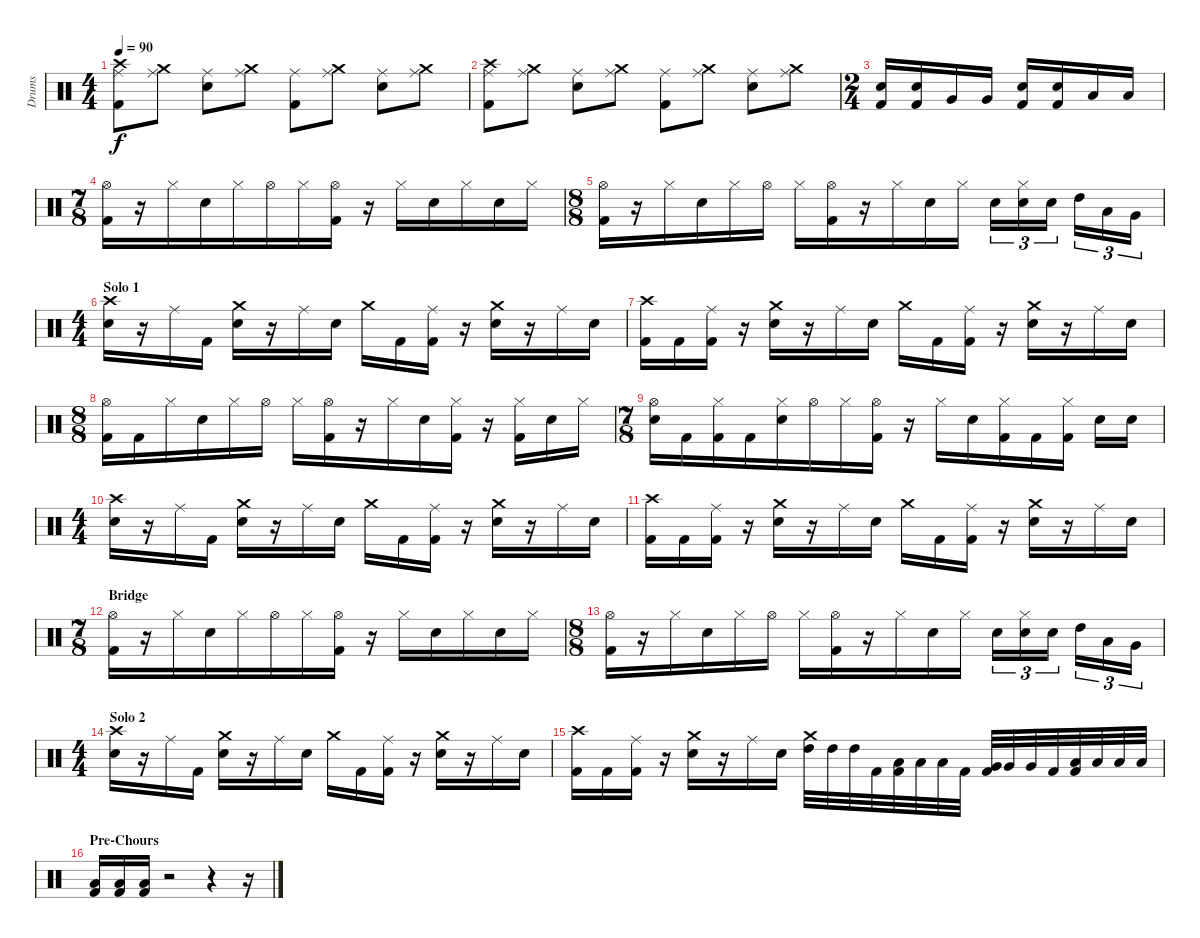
\track ("Drums" "Drums") {instrument percussion}
\staff {score}
\articulation defaults
\ts (4 4)
\tempo 90
\clef neutral
\ks c
("Crash high (hit)" "Ride (middle)" "Kick (hit) 2").8{dy f} ("Crash medium (hit)" "Ride (middle)").8 ("Ride (middle)" "Snare (hit) 2").8 ("Crash medium (hit)" "Ride (middle)").8 ("Ride (middle)" "Kick (hit) 2").8 ("Crash medium (hit)" "Ride (middle)").8 ("Ride (middle)" "Snare (hit) 2").8 ("Crash medium (hit)" "Ride (middle)").8 |
("Crash high (hit)" "Ride (middle)" "Kick (hit) 2").8 ("Crash medium (hit)" "Ride (middle)").8 ("Ride (middle)" "Snare (hit) 2").8 ("Crash medium (hit)" "Ride (middle)").8 ("Ride (middle)" "Kick (hit) 2").8 ("Crash medium (hit)" "Ride (middle)").8 ("Ride (middle)" "Snare (hit) 2").8 ("Crash medium (hit)" "Ride (middle)").8 |
\ts (2 4)
("Snare (hit) 2" "Kick (hit) 2").16 ("Snare (hit) 2" "Kick (hit) 2").16 "Very Low Tom (hit)".16 "Very Low Tom (hit)".16 ("Snare (hit) 2" "Kick (hit) 2").16 ("Snare (hit) 2" "Kick (hit) 2").16 "Low Floor Tom (hit)".16 "Low Floor Tom (hit)".16 |
\ts (7 8)
("Hi-Hat (open)" "Kick (hit) 2").16 r.16 "Hi-Hat (closed)".16 "Snare (hit) 2".16 "Hi-Hat (closed)".16 "Hi-Hat (open)".16 "Hi-Hat (closed)".16 ("Hi-Hat (open)" "Kick (hit) 2").16 r.16 "Hi-Hat (closed)".16 "Snare (hit) 2".16 "Hi-Hat (closed)".16 "Snare (hit) 2".16 "Hi-Hat (closed)".16 |
\ts (8 8)
("Hi-Hat (open)" "Kick (hit) 2").16 r.16 "Hi-Hat (closed)".16 "Snare (hit) 2".16 "Hi-Hat (closed)".16 "Hi-Hat (open)".16 "Hi-Hat (closed)".16 ("Hi-Hat (open)" "Kick (hit) 2").16 r.16 "Hi-Hat (closed)".16 "Snare (hit) 2".16 "Hi-Hat (closed)".16 "Snare (hit) 2".16{tu (3 2)} ("Hi-Hat (closed)" "Snare (hit) 2").16{tu (3 2)} "Snare (hit) 2".16{tu (3 2)} "High Tom (hit)".16{tu (3 2)} "Low Tom (hit)".16{tu (3 2)} "Very Low Tom (hit)".16{tu (3 2)} |
\ts (4 4)
\section ("" "Solo 1")
("Crash high (hit)" "Snare (hit) 2").16 r.16 "Ride (middle)".16 "Kick (hit) 2".16 ("Crash medium (hit)" "Snare (hit) 2").16 r.16 "Ride (middle)".16 "Snare (hit) 2".16 "Crash medium (hit)".16 "Kick (hit) 2".16 ("Ride (middle)" "Kick (hit) 2").16 r.16 ("Crash medium (hit)" "Snare (hit) 2").16 r.16 "Ride (middle)".16 "Snare (hit) 2".16 |
("Crash high (hit)" "Kick (hit) 2").16 "Kick (hit) 2".16 ("Ride (middle)" "Kick (hit) 2").16 r.16 ("Crash medium (hit)" "Snare (hit) 2").16 r.16 "Ride (middle)".16 "Snare (hit) 2".16 "Crash medium (hit)".16 "Kick (hit) 2".16 ("Ride (middle)" "Kick (hit) 2").16 r.16 ("Crash medium (hit)" "Snare (hit) 2").16 r.16 "Ride (middle)".16 "Snare (hit) 2".16 |
\ts (8 8)
("Hi-Hat (open)" "Kick (hit) 2").16 "Kick (hit) 2".16 "Hi-Hat (closed)".16 "Snare (hit) 2".16 "Hi-Hat (closed)".16 "Hi-Hat (open)".16 "Hi-Hat (closed)".16 ("Hi-Hat (open)" "Kick (hit) 2").16 r.16 "Hi-Hat (closed)".16 "Snare (hit) 2".16 ("Hi-Hat (closed)" "Kick (hit) 2").16 r.16 ("Hi-Hat (closed)" "Kick (hit) 2").16 "Snare (hit) 2".16 "Hi-Hat (closed)".16 |
\ts (7 8)
("Hi-Hat (open)" "Snare (hit) 2").16 "Kick (hit) 2".16 ("Hi-Hat (closed)" "Kick (hit) 2").16 "Kick (hit) 2".16 ("Hi-Hat (closed)" "Snare (hit) 2").16 "Hi-Hat (open)".16 "Hi-Hat (closed)".16 ("Hi-Hat (open)" "Kick (hit) 2").16 r.16 "Hi-Hat (closed)".16 "Snare (hit) 2".16 ("Hi-Hat (closed)" "Kick (hit) 2").16 "Kick (hit) 2".16 ("Hi-Hat (closed)" "Kick (hit) 2").16 "Snare (hit) 2".16 "Snare (hit) 2".16 |
\ts (4 4)
("Crash high (hit)" "Snare (hit) 2").16 r.16 "Ride (middle)".16 "Kick (hit) 2".16 ("Crash medium (hit)" "Snare (hit) 2").16 r.16 "Ride (middle)".16 "Snare (hit) 2".16 "Crash medium (hit)".16 "Kick (hit) 2".16 ("Ride (middle)" "Kick (hit) 2").16 r.16 ("Crash medium (hit)" "Snare (hit) 2").16 r.16 "Ride (middle)".16 "Snare (hit) 2".16 |
("Crash high (hit)" "Kick (hit) 2").16 "Kick (hit) 2".16 ("Ride (middle)" "Kick (hit) 2").16 r.16 ("Crash medium (hit)" "Snare (hit) 2").16 r.16 "Ride (middle)".16 "Snare (hit) 2".16 "Crash medium (hit)".16 "Kick (hit) 2".16 ("Ride (middle)" "Kick (hit) 2").16 r.16 ("Crash medium (hit)" "Snare (hit) 2").16 r.16 "Ride (middle)".16 "Snare (hit) 2".16 |
\ts (7 8)
\section ("" "Bridge")
("Hi-Hat (open)" "Kick (hit) 2").16 r.16 "Hi-Hat (closed)".16 "Snare (hit) 2".16 "Hi-Hat (closed)".16 "Hi-Hat (open)".16 "Hi-Hat (closed)".16 ("Hi-Hat (open)" "Kick (hit) 2").16 r.16 "Hi-Hat (closed)".16 "Snare (hit) 2".16 "Hi-Hat (closed)".16 "Snare (hit) 2".16 "Hi-Hat (closed)".16 |
\ts (8 8)
("Hi-Hat (open)" "Kick (hit) 2").16 r.16 "Hi-Hat (closed)".16 "Snare (hit) 2".16 "Hi-Hat (closed)".16 "Hi-Hat (open)".16 "Hi-Hat (closed)".16 ("Hi-Hat (open)" "Kick (hit) 2").16 r.16 "Hi-Hat (closed)".16 "Snare (hit) 2".16 "Hi-Hat (closed)".16 "Snare (hit) 2".16{tu (3 2)} ("Hi-Hat (closed)" "Snare (hit) 2").16{tu (3 2)} "Snare (hit) 2".16{tu (3 2)} "High Tom (hit)".16{tu (3 2)} "Low Tom (hit)".16{tu (3 2)} "Very Low Tom (hit)".16{tu (3 2)} |
\ts (4 4)
\section ("" "Solo 2")
("Crash high (hit)" "Snare (hit) 2").16 r.16 "Ride (middle)".16 "Kick (hit) 2".16 ("Crash medium (hit)" "Snare (hit) 2").16 r.16 "Ride (middle)".16 "Snare (hit) 2".16 "Crash medium (hit)".16 "Kick (hit) 2".16 ("Ride (middle)" "Kick (hit) 2").16 r.16 ("Crash medium (hit)" "Snare (hit) 2").16 r.16 "Ride (middle)".16 "Snare (hit) 2".16 |
("Crash high (hit)" "Kick (hit) 2").16 "Kick (hit) 2".16 ("Ride (middle)" "Kick (hit) 2").16 r.16 ("Crash medium (hit)" "Snare (hit) 2").16 r.16 "Ride (middle)".16 "Snare (hit) 2".16 ("Crash medium (hit)" "High Tom (hit)").32 "High Tom (hit)".32 "High Tom (hit)".32 "Kick (hit) 2".32 ("Low Tom (hit)" "Kick (hit) 2").32 "Low Tom (hit)".32 "Low Tom (hit)".32 "Kick (hit) 2".32 ("Very Low Tom (hit)" "Kick (hit) 2").32 "Very Low Tom (hit)".32 "Very Low Tom (hit)".32 "Kick (hit) 2".32 ("Low Floor Tom (hit)" "Kick (hit) 2").32 "Low Floor Tom (hit)".32 "Low Floor Tom (hit)".32 "Low Floor Tom (hit)".32 |
\section ("" "Pre-Chours")
("Low Tom (hit)" "Kick (hit) 2").16 ("Low Tom (hit)" "Kick (hit) 2").16 ("Low Tom (hit)" "Kick (hit) 2").16 r.2 r.4 r.16
